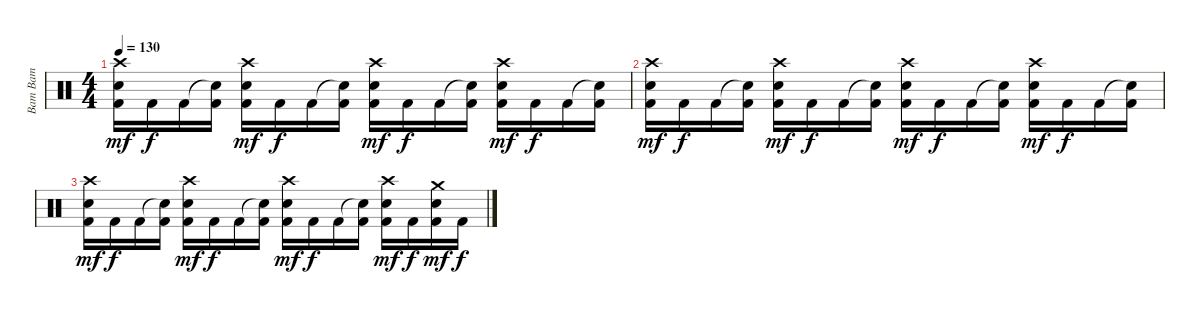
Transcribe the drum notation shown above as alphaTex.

\track ("Bam Bam" "Bam Bam") {instrument percussion}
\staff {score}
\articulation defaults
\ts (4 4)
\tempo 130
\clef neutral
\ks c
("Crash high (hit)" "Electric Snare (hit)" "Kick (hit) 2").16{dy mf} "Kick (hit) 2".16{dy f} "Kick (hit) 2".16 ("Snare (hit)"{t} "Kick (hit) 2").16 ("Crash high (hit)" "Electric Snare (hit)" "Kick (hit) 2").16{dy mf} "Kick (hit) 2".16{dy f} "Kick (hit) 2".16 ("Snare (hit)"{t} "Kick (hit) 2").16 ("Crash high (hit)" "Electric Snare (hit)" "Kick (hit) 2").16{dy mf} "Kick (hit) 2".16{dy f} "Kick (hit) 2".16 ("Snare (hit)"{t} "Kick (hit) 2").16 ("Crash high (hit)" "Electric Snare (hit)" "Kick (hit) 2").16{dy mf} "Kick (hit) 2".16{dy f} "Kick (hit) 2".16 ("Snare (hit)"{t} "Kick (hit) 2").16 |
("Crash high (hit)" "Electric Snare (hit)" "Kick (hit) 2").16{dy mf} "Kick (hit) 2".16{dy f} "Kick (hit) 2".16 ("Snare (hit)"{t} "Kick (hit) 2").16 ("Crash high (hit)" "Electric Snare (hit)" "Kick (hit) 2").16{dy mf} "Kick (hit) 2".16{dy f} "Kick (hit) 2".16 ("Snare (hit)"{t} "Kick (hit) 2").16 ("Crash high (hit)" "Electric Snare (hit)" "Kick (hit) 2").16{dy mf} "Kick (hit) 2".16{dy f} "Kick (hit) 2".16 ("Snare (hit)"{t} "Kick (hit) 2").16 ("Crash high (hit)" "Electric Snare (hit)" "Kick (hit) 2").16{dy mf} "Kick (hit) 2".16{dy f} "Kick (hit) 2".16 ("Snare (hit)"{t} "Kick (hit) 2").16 |
("Crash high (hit)" "Electric Snare (hit)" "Kick (hit) 2").16{dy mf} "Kick (hit) 2".16{dy f} "Kick (hit) 2".16 ("Snare (hit)"{t} "Kick (hit) 2").16 ("Crash high (hit)" "Electric Snare (hit)" "Kick (hit) 2").16{dy mf} "Kick (hit) 2".16{dy f} "Kick (hit) 2".16 ("Snare (hit)"{t} "Kick (hit) 2").16 ("Crash high (hit)" "Electric Snare (hit)" "Kick (hit) 2").16{dy mf} "Kick (hit) 2".16{dy f} "Kick (hit) 2".16 ("Snare (hit)"{t} "Kick (hit) 2").16 ("Crash high (hit)" "Electric Snare (hit)" "Kick (hit) 2").16{dy mf} "Kick (hit) 2".16{dy f} ("Crash medium (hit)" "Electric Snare (hit)" "Kick (hit) 2").16{dy mf} "Kick (hit) 2".16{dy f}
